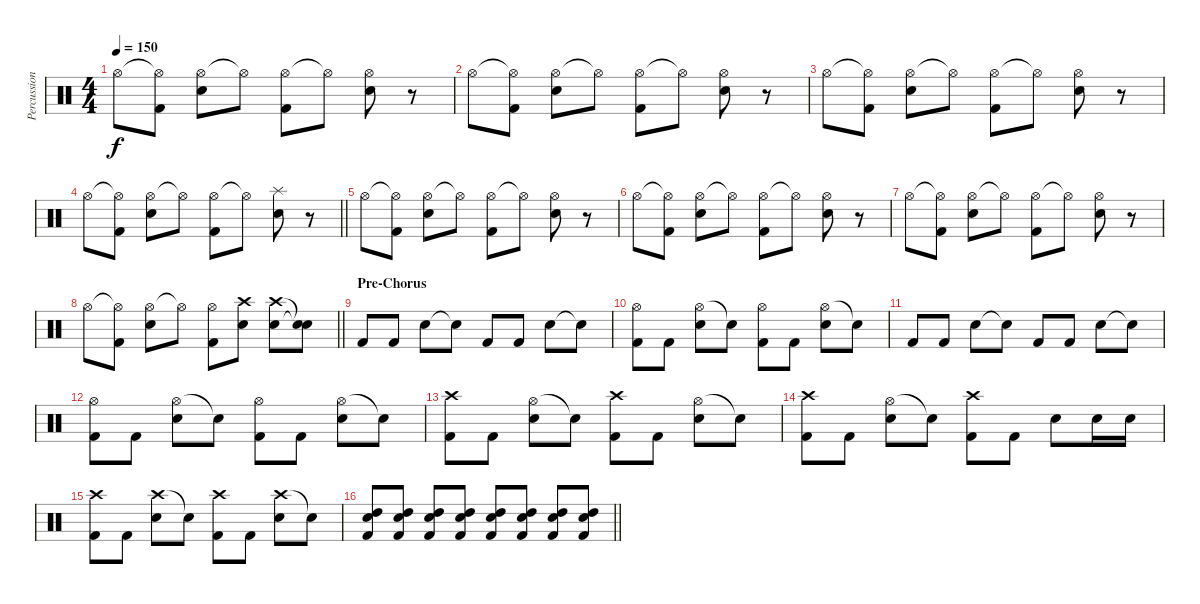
\track ("Percussion" "Percussion") {instrument percussion}
\staff {score}
\articulation defaults
\ts (4 4)
\tempo 150
\clef neutral
\ks c "Hi-Hat (open)".8{dy f}
("Hi-Hat (open)"{t} "Kick (hit) 2").8 ("Hi-Hat (open)" "Electric Snare (hit)").8 "Hi-Hat (open)"{t}.8 ("Hi-Hat (open)" "Kick (hit) 2").8 "Hi-Hat (open)"{t}.8 ("Hi-Hat (open)" "Electric Snare (hit)").8 r.8 |
"Hi-Hat (open)".8 ("Hi-Hat (open)"{t} "Kick (hit) 2").8 ("Hi-Hat (open)" "Electric Snare (hit)").8 "Hi-Hat (open)"{t}.8 ("Hi-Hat (open)" "Kick (hit) 2").8 "Hi-Hat (open)"{t}.8 ("Hi-Hat (open)" "Electric Snare (hit)").8 r.8 |
"Hi-Hat (open)".8 ("Hi-Hat (open)"{t} "Kick (hit) 2").8 ("Hi-Hat (open)" "Electric Snare (hit)").8 "Hi-Hat (open)"{t}.8 ("Hi-Hat (open)" "Kick (hit) 2").8 "Hi-Hat (open)"{t}.8 ("Hi-Hat (open)" "Electric Snare (hit)").8 r.8 |
\barLineRight lightlight "Hi-Hat (open)".8
("Hi-Hat (open)"{t} "Kick (hit) 2").8 ("Hi-Hat (open)" "Electric Snare (hit)").8 "Hi-Hat (open)"{t}.8 ("Hi-Hat (open)" "Kick (hit) 2").8 "Hi-Hat (open)"{t}.8 ("Splash (hit)" "Electric Snare (hit)").8 r.8 |
"Hi-Hat (open)".8 ("Hi-Hat (open)"{t} "Kick (hit) 2").8 ("Hi-Hat (open)" "Electric Snare (hit)").8 "Hi-Hat (open)"{t}.8 ("Hi-Hat (open)" "Kick (hit) 2").8 "Hi-Hat (open)"{t}.8 ("Hi-Hat (open)" "Electric Snare (hit)").8 r.8 |
"Hi-Hat (open)".8 ("Hi-Hat (open)"{t} "Kick (hit) 2").8 ("Hi-Hat (open)" "Electric Snare (hit)").8 "Hi-Hat (open)"{t}.8 ("Hi-Hat (open)" "Kick (hit) 2").8 "Hi-Hat (open)"{t}.8 ("Hi-Hat (open)" "Electric Snare (hit)").8 r.8 |
"Hi-Hat (open)".8 ("Hi-Hat (open)"{t} "Kick (hit) 2").8 ("Hi-Hat (open)" "Electric Snare (hit)").8 "Hi-Hat (open)"{t}.8 ("Hi-Hat (open)" "Kick (hit) 2").8 "Hi-Hat (open)"{t}.8 ("Hi-Hat (open)" "Electric Snare (hit)").8 r.8 |
\barLineRight lightlight "Hi-Hat (open)".8
("Hi-Hat (open)"{t} "Kick (hit) 2").8 ("Hi-Hat (open)" "Electric Snare (hit)").8 "Hi-Hat (open)"{t}.8 ("Hi-Hat (open)" "Kick (hit) 2").8 ("Crash high (hit)" "Electric Snare (hit)").8 ("Crash high (hit)" "Electric Snare (hit)").8 ("Snare (hit)"{t} "Snare (hit)"{t}).8 |
\section ("" "Pre-Chorus ")
"Kick (hit) 2".8 "Kick (hit) 2".8 "Electric Snare (hit)".8 "Snare (hit)"{t}.8 "Kick (hit) 2".8 "Kick (hit) 2".8 "Electric Snare (hit)".8 "Snare (hit)"{t}.8 |
("Hi-Hat (open)" "Kick (hit) 2").8 "Kick (hit) 2".8 ("Hi-Hat (open)" "Electric Snare (hit)").8 "Snare (hit)"{t}.8 ("Hi-Hat (open)" "Kick (hit) 2").8 "Kick (hit) 2".8 ("Hi-Hat (open)" "Electric Snare (hit)").8 "Snare (hit)"{t}.8 |
"Kick (hit) 2".8 "Kick (hit) 2".8 "Electric Snare (hit)".8 "Snare (hit)"{t}.8 "Kick (hit) 2".8 "Kick (hit) 2".8 "Electric Snare (hit)".8 "Snare (hit)"{t}.8 |
("Hi-Hat (open)" "Kick (hit) 2").8 "Kick (hit) 2".8 ("Hi-Hat (open)" "Electric Snare (hit)").8 "Snare (hit)"{t}.8 ("Hi-Hat (open)" "Kick (hit) 2").8 "Kick (hit) 2".8 ("Hi-Hat (open)" "Electric Snare (hit)").8 "Snare (hit)"{t}.8 |
("Crash high (hit)" "Kick (hit) 2").8 "Kick (hit) 2".8 ("Hi-Hat (open)" "Electric Snare (hit)").8 "Snare (hit)"{t}.8 ("Crash high (hit)" "Kick (hit) 2").8 "Kick (hit) 2".8 ("Hi-Hat (open)" "Electric Snare (hit)").8 "Snare (hit)"{t}.8 |
("Crash high (hit)" "Kick (hit) 2").8 "Kick (hit) 2".8 ("Hi-Hat (open)" "Electric Snare (hit)").8 "Snare (hit)"{t}.8 ("Crash high (hit)" "Kick (hit) 2").8 "Kick (hit) 2".8 "Electric Snare (hit)".8 "Electric Snare (hit)".16 "Electric Snare (hit)".16 |
("Crash high (hit)" "Kick (hit) 2").8 "Kick (hit) 2".8 ("Crash high (hit)" "Electric Snare (hit)").8 "Snare (hit)"{t}.8 ("Crash high (hit)" "Kick (hit) 2").8 "Kick (hit) 2".8 ("Crash high (hit)" "Electric Snare (hit)").8 "Snare (hit)"{t}.8 |
\barLineRight lightlight
("Electric Snare (hit)" "High Tom (hit)" "Kick (hit) 2").8 ("Electric Snare (hit)" "High Tom (hit)" "Kick (hit) 2").8 ("Electric Snare (hit)" "High Tom (hit)" "Kick (hit) 2").8 ("Electric Snare (hit)" "High Tom (hit)" "Kick (hit) 2").8 ("Electric Snare (hit)" "High Tom (hit)" "Kick (hit) 2").8 ("Electric Snare (hit)" "High Tom (hit)" "Kick (hit) 2").8 ("Electric Snare (hit)" "High Tom (hit)" "Kick (hit) 2").8 ("Electric Snare (hit)" "High Tom (hit)" "Kick (hit) 2").8
